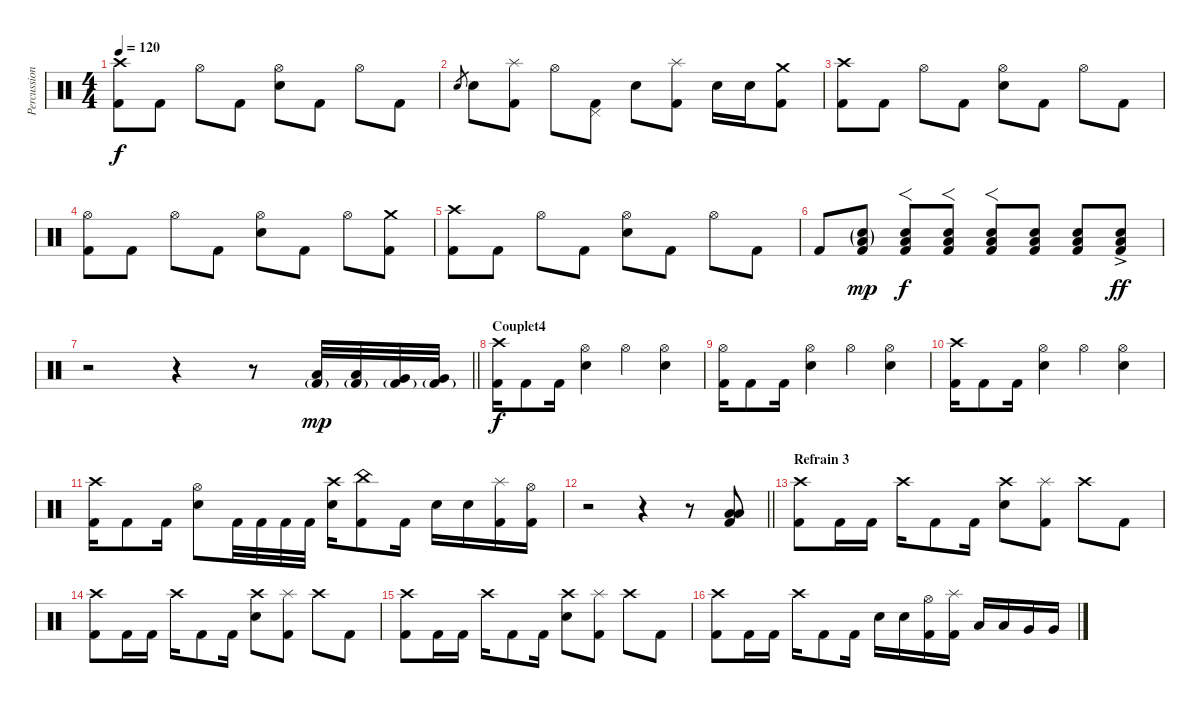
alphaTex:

\track ("Percussion" "Percussion") {instrument percussion}
\staff {score}
\articulation defaults
\ts (4 4)
\tempo 120
\clef neutral
\ks c
("Crash high (hit)" "Kick (hit) 2").8{dy f} "Kick (hit) 2".8 "Hi-Hat (open)".8 "Kick (hit) 2".8 ("Hi-Hat (open)" "Electric Snare (hit)").8 "Kick (hit) 2".8 "Hi-Hat (open)".8 "Kick (hit) 2".8 |
"Electric Snare (hit)".8{gr} "Electric Snare (hit)".8 ("Splash (hit)" "Kick (hit) 2").8 "Hi-Hat (open)".8 ("Pedal Hi-Hat (hit)" "Kick (hit) 2").8 "Electric Snare (hit)".8 ("Splash (hit)" "Kick (hit) 2").8 "Electric Snare (hit)".16 "Electric Snare (hit)".16 ("Crash medium (hit)" "Kick (hit) 2").8 |
("Crash high (hit)" "Kick (hit) 2").8 "Kick (hit) 2".8 "Hi-Hat (open)".8 "Kick (hit) 2".8 ("Hi-Hat (open)" "Electric Snare (hit)").8 "Kick (hit) 2".8 "Hi-Hat (open)".8 "Kick (hit) 2".8 |
("Hi-Hat (open)" "Kick (hit) 2").8 "Kick (hit) 2".8 "Hi-Hat (open)".8 "Kick (hit) 2".8 ("Hi-Hat (open)" "Electric Snare (hit)").8 "Kick (hit) 2".8 "Hi-Hat (open)".8 ("Crash medium (hit)" "Kick (hit) 2").8 |
("Crash high (hit)" "Kick (hit) 2").8 "Kick (hit) 2".8 "Hi-Hat (open)".8 "Kick (hit) 2".8 ("Hi-Hat (open)" "Electric Snare (hit)").8 "Kick (hit) 2".8 "Hi-Hat (open)".8 "Kick (hit) 2".8 |
"Kick (hit) 2".8 ("Electric Snare (hit)"{g} "Low Floor Tom (hit)"{g} "Kick (hit) 2").8{dy mp} ("Electric Snare (hit)" "Low Floor Tom (hit)" "Kick (hit) 2").8{f dy f} ("Electric Snare (hit)" "Low Floor Tom (hit)" "Kick (hit) 2").8{f} ("Electric Snare (hit)" "Low Floor Tom (hit)" "Kick (hit) 2").8{f} ("Electric Snare (hit)" "Low Floor Tom (hit)" "Kick (hit) 2").8 ("Electric Snare (hit)" "Low Floor Tom (hit)" "Kick (hit) 2").8 ("Electric Snare (hit)"{ac} "Low Floor Tom (hit)" "Kick (hit) 2").8{dy ff} |
\barLineRight lightlight
r.2 r.4 r.8 ("Low Tom (hit)" "Kick (hit) 2"{g}).32{dy mp} ("Low Tom (hit)" "Kick (hit) 2"{g}).32 ("Very Low Tom (hit)" "Kick (hit) 2"{g}).32 ("Very Low Tom (hit)" "Kick (hit) 2"{g}).32 |
\section ("" "Couplet4")
("Crash high (hit)" "Kick (hit) 2").16{dy f} "Kick (hit) 2".8 "Kick (hit) 2".16 ("Hi-Hat (open)" "Electric Snare (hit)").4 "Hi-Hat (open)".4 ("Hi-Hat (open)" "Electric Snare (hit)").4 |
("Hi-Hat (open)" "Kick (hit) 2").16 "Kick (hit) 2".8 "Kick (hit) 2".16 ("Hi-Hat (open)" "Electric Snare (hit)").4 "Hi-Hat (open)".4 ("Hi-Hat (open)" "Electric Snare (hit)").4 |
("Crash high (hit)" "Kick (hit) 2").16 "Kick (hit) 2".8 "Kick (hit) 2".16 ("Hi-Hat (open)" "Electric Snare (hit)").4 "Hi-Hat (open)".4 ("Hi-Hat (open)" "Electric Snare (hit)").4 |
("Crash high (hit)" "Kick (hit) 2").16 "Kick (hit) 2".8 "Kick (hit) 2".16 ("Hi-Hat (open)" "Electric Snare (hit)").8 "Kick (hit) 2".32 "Kick (hit) 2".32 "Kick (hit) 2".32 "Kick (hit) 2".32 ("Crash high (hit)" "Electric Snare (hit)").16 ("China (hit)" "Kick (hit) 2").8 "Kick (hit) 2".16 "Electric Snare (hit)".16 "Electric Snare (hit)".16 ("Splash (hit)" "Kick (hit) 2").16 ("Hi-Hat (open)" "Kick (hit) 2").16 |
\barLineRight lightlight
r.2 r.4 r.8 ("Low Floor Tom (hit)" "Low Tom (hit)" "Kick (hit) 2").8 |
\section ("" "Refrain 3")
("Crash high (hit)" "Kick (hit) 2").8 "Kick (hit) 2".16 "Kick (hit) 2".16 "Crash high (hit)".16 "Kick (hit) 2".8 "Kick (hit) 2".16 ("Crash high (hit)" "Electric Snare (hit)").8 ("Splash (hit)" "Kick (hit) 2").8 "Crash high (hit)".8 "Kick (hit) 2".8 |
("Crash high (hit)" "Kick (hit) 2").8 "Kick (hit) 2".16 "Kick (hit) 2".16 "Crash high (hit)".16 "Kick (hit) 2".8 "Kick (hit) 2".16 ("Crash high (hit)" "Electric Snare (hit)").8 ("Splash (hit)" "Kick (hit) 2").8 "Crash high (hit)".8 "Kick (hit) 2".8 |
("Crash high (hit)" "Kick (hit) 2").8 "Kick (hit) 2".16 "Kick (hit) 2".16 "Crash high (hit)".16 "Kick (hit) 2".8 "Kick (hit) 2".16 ("Crash high (hit)" "Electric Snare (hit)").8 ("Splash (hit)" "Kick (hit) 2").8 "Crash high (hit)".8 "Kick (hit) 2".8 |
("Crash high (hit)" "Kick (hit) 2").8 "Kick (hit) 2".16 "Kick (hit) 2".16 "Crash high (hit)".16 "Kick (hit) 2".8 "Kick (hit) 2".16 "Electric Snare (hit)".16 "Electric Snare (hit)".16 ("Hi-Hat (open)" "Kick (hit) 2").16 ("Splash (hit)" "Kick (hit) 2").16 "Low Tom (hit)".16 "Low Tom (hit)".16 "Very Low Tom (hit)".16 "Very Low Tom (hit)".16
